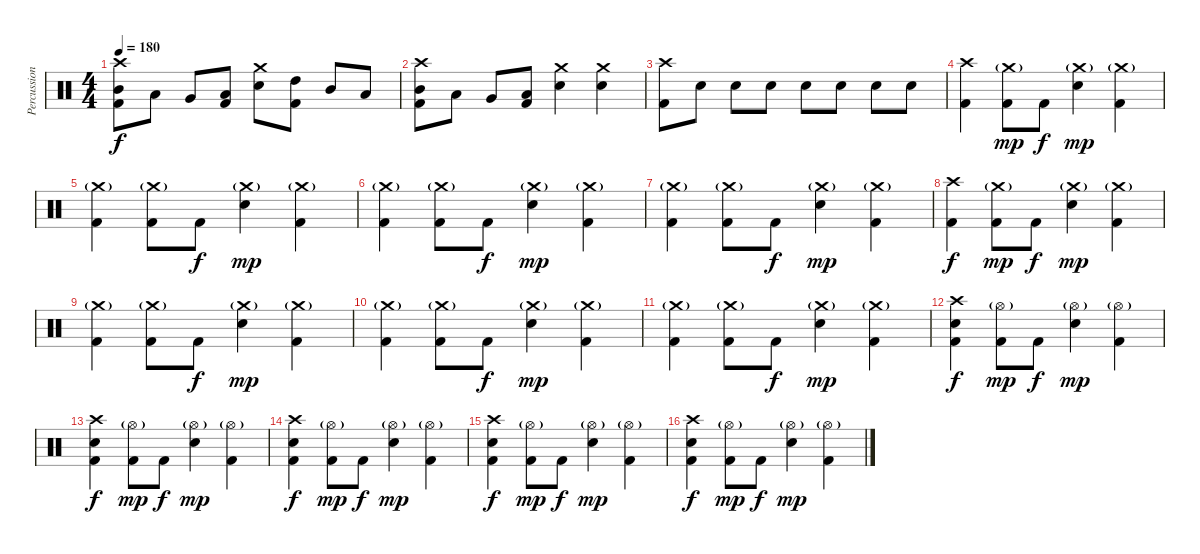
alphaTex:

\track ("Percussion" "Percussion") {instrument percussion}
\staff {score}
\articulation defaults
\ts (4 4)
\tempo 180
\clef neutral
\ks c
("Crash high (hit)" "Mid Tom (hit)" "Kick (hit) 2").8{dy f} "Low Tom (hit)".8 "Very Low Tom (hit)".8 ("Low Floor Tom (hit)" "Kick (hit) 2").8 ("Crash medium (hit)" "Electric Snare (hit)").8 ("High Tom (hit)" "Kick (hit) 2").8 "Mid Tom (hit)".8 "Low Tom (hit)".8 |
("Crash high (hit)" "Mid Tom (hit)" "Kick (hit) 2").8 "Low Tom (hit)".8 "Very Low Tom (hit)".8 ("Low Floor Tom (hit)" "Kick (hit) 2").8 ("Crash medium (hit)" "Electric Snare (hit)").4 ("Crash medium (hit)" "Electric Snare (hit)").4 |
("Crash high (hit)" "Kick (hit) 2").8 "Electric Snare (hit)".8 "Electric Snare (hit)".8 "Electric Snare (hit)".8 "Electric Snare (hit)".8 "Electric Snare (hit)".8 "Electric Snare (hit)".8 "Electric Snare (hit)".8 |
("Crash high (hit)" "Kick (hit) 2").4 ("Crash medium (hit)"{g} "Kick (hit) 2").8{dy mp} "Kick (hit) 2".8{dy f} ("Crash medium (hit)"{g} "Electric Snare (hit)").4{dy mp} ("Crash medium (hit)"{g} "Kick (hit) 2").4 |
("Crash medium (hit)"{g} "Kick (hit) 2").4 ("Crash medium (hit)"{g} "Kick (hit) 2").8 "Kick (hit) 2".8{dy f} ("Crash medium (hit)"{g} "Electric Snare (hit)").4{dy mp} ("Crash medium (hit)"{g} "Kick (hit) 2").4 |
("Crash medium (hit)"{g} "Kick (hit) 2").4 ("Crash medium (hit)"{g} "Kick (hit) 2").8 "Kick (hit) 2".8{dy f} ("Crash medium (hit)"{g} "Electric Snare (hit)").4{dy mp} ("Crash medium (hit)"{g} "Kick (hit) 2").4 |
("Crash medium (hit)"{g} "Kick (hit) 2").4 ("Crash medium (hit)"{g} "Kick (hit) 2").8 "Kick (hit) 2".8{dy f} ("Crash medium (hit)"{g} "Electric Snare (hit)").4{dy mp} ("Crash medium (hit)"{g} "Kick (hit) 2").4 |
("Crash high (hit)" "Kick (hit) 2").4{dy f} ("Crash medium (hit)"{g} "Kick (hit) 2").8{dy mp} "Kick (hit) 2".8{dy f} ("Crash medium (hit)"{g} "Electric Snare (hit)").4{dy mp} ("Crash medium (hit)"{g} "Kick (hit) 2").4 |
("Crash medium (hit)"{g} "Kick (hit) 2").4 ("Crash medium (hit)"{g} "Kick (hit) 2").8 "Kick (hit) 2".8{dy f} ("Crash medium (hit)"{g} "Electric Snare (hit)").4{dy mp} ("Crash medium (hit)"{g} "Kick (hit) 2").4 |
("Crash medium (hit)"{g} "Kick (hit) 2").4 ("Crash medium (hit)"{g} "Kick (hit) 2").8 "Kick (hit) 2".8{dy f} ("Crash medium (hit)"{g} "Electric Snare (hit)").4{dy mp} ("Crash medium (hit)"{g} "Kick (hit) 2").4 |
("Crash medium (hit)"{g} "Kick (hit) 2").4 ("Crash medium (hit)"{g} "Kick (hit) 2").8 "Kick (hit) 2".8{dy f} ("Crash medium (hit)"{g} "Electric Snare (hit)").4{dy mp} ("Crash medium (hit)"{g} "Kick (hit) 2").4 |
("Crash high (hit)" "Electric Snare (hit)" "Kick (hit) 2").4{dy f} ("Hi-Hat (open)"{g} "Kick (hit) 2").8{dy mp} "Kick (hit) 2".8{dy f} ("Hi-Hat (open)"{g} "Electric Snare (hit)").4{dy mp} ("Hi-Hat (open)"{g} "Kick (hit) 2").4 |
("Crash high (hit)" "Electric Snare (hit)" "Kick (hit) 2").4{dy f} ("Hi-Hat (open)"{g} "Kick (hit) 2").8{dy mp} "Kick (hit) 2".8{dy f} ("Hi-Hat (open)"{g} "Electric Snare (hit)").4{dy mp} ("Hi-Hat (open)"{g} "Kick (hit) 2").4 |
("Crash high (hit)" "Electric Snare (hit)" "Kick (hit) 2").4{dy f} ("Hi-Hat (open)"{g} "Kick (hit) 2").8{dy mp} "Kick (hit) 2".8{dy f} ("Hi-Hat (open)"{g} "Electric Snare (hit)").4{dy mp} ("Hi-Hat (open)"{g} "Kick (hit) 2").4 |
("Crash high (hit)" "Electric Snare (hit)" "Kick (hit) 2").4{dy f} ("Hi-Hat (open)"{g} "Kick (hit) 2").8{dy mp} "Kick (hit) 2".8{dy f} ("Hi-Hat (open)"{g} "Electric Snare (hit)").4{dy mp} ("Hi-Hat (open)"{g} "Kick (hit) 2").4 |
("Crash high (hit)" "Electric Snare (hit)" "Kick (hit) 2").4{dy f} ("Hi-Hat (open)"{g} "Kick (hit) 2").8{dy mp} "Kick (hit) 2".8{dy f} ("Hi-Hat (open)"{g} "Electric Snare (hit)").4{dy mp} ("Hi-Hat (open)"{g} "Kick (hit) 2").4
